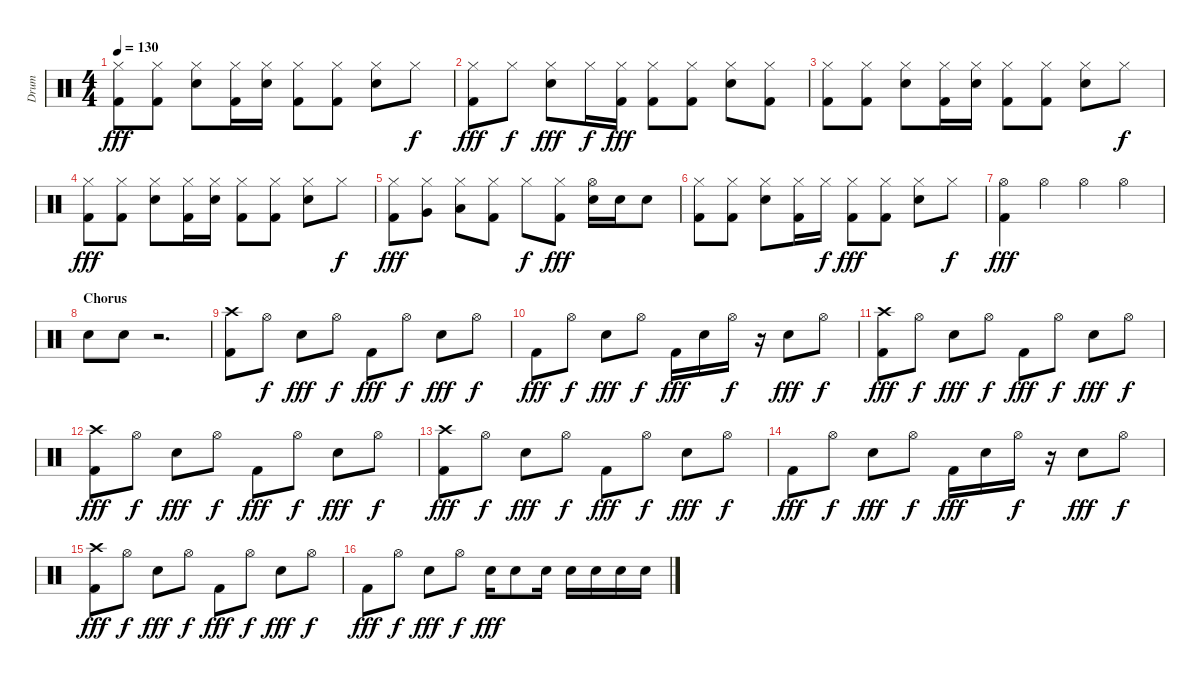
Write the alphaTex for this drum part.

\track ("Drum" "Drum") {instrument percussion}
\staff {score}
\articulation defaults
\ts (4 4)
\tempo 130
\clef neutral
\ks c
("Hi-Hat (closed)" "Kick (hit) 2").8{dy fff} ("Hi-Hat (closed)" "Kick (hit) 2").8 ("Hi-Hat (closed)" "Electric Snare (hit)").8 ("Hi-Hat (closed)" "Kick (hit) 2").16 ("Hi-Hat (closed)" "Electric Snare (hit)").16 ("Hi-Hat (closed)" "Kick (hit) 2").8 ("Hi-Hat (closed)" "Kick (hit) 2").8 ("Hi-Hat (closed)" "Electric Snare (hit)").8 "Hi-Hat (closed)".8{dy f} |
("Hi-Hat (closed)" "Kick (hit) 2").8{dy fff} "Hi-Hat (closed)".8{dy f} ("Hi-Hat (closed)" "Electric Snare (hit)").8{dy fff} "Hi-Hat (closed)".16{dy f} ("Hi-Hat (closed)" "Kick (hit) 2").16{dy fff} ("Hi-Hat (closed)" "Kick (hit) 2").8 ("Hi-Hat (closed)" "Kick (hit) 2").8 ("Hi-Hat (closed)" "Electric Snare (hit)").8 ("Hi-Hat (closed)" "Kick (hit) 2").8 |
("Hi-Hat (closed)" "Kick (hit) 2").8 ("Hi-Hat (closed)" "Kick (hit) 2").8 ("Hi-Hat (closed)" "Electric Snare (hit)").8 ("Hi-Hat (closed)" "Kick (hit) 2").16 ("Hi-Hat (closed)" "Electric Snare (hit)").16 ("Hi-Hat (closed)" "Kick (hit) 2").8 ("Hi-Hat (closed)" "Kick (hit) 2").8 ("Hi-Hat (closed)" "Electric Snare (hit)").8 "Hi-Hat (closed)".8{dy f} |
("Hi-Hat (closed)" "Kick (hit) 2").8{dy fff} ("Hi-Hat (closed)" "Kick (hit) 2").8 ("Hi-Hat (closed)" "Electric Snare (hit)").8 ("Hi-Hat (closed)" "Kick (hit) 2").16 ("Hi-Hat (closed)" "Electric Snare (hit)").16 ("Hi-Hat (closed)" "Kick (hit) 2").8 ("Hi-Hat (closed)" "Kick (hit) 2").8 ("Hi-Hat (closed)" "Electric Snare (hit)").8 "Hi-Hat (closed)".8{dy f} |
("Hi-Hat (closed)" "Kick (hit) 2").8{dy fff} ("Hi-Hat (closed)" "Very Low Tom (hit)").8 ("Hi-Hat (closed)" "Low Tom (hit)").8 ("Hi-Hat (closed)" "Kick (hit) 2").8 "Hi-Hat (closed)".8{dy f} ("Hi-Hat (closed)" "Kick (hit) 2").8{dy fff} ("Hi-Hat (open)" "Electric Snare (hit)").16 "Electric Snare (hit)".16 "Electric Snare (hit)".8 |
("Hi-Hat (closed)" "Kick (hit) 2").8 ("Hi-Hat (closed)" "Kick (hit) 2").8 ("Hi-Hat (closed)" "Electric Snare (hit)").8 ("Hi-Hat (closed)" "Kick (hit) 2").16 "Hi-Hat (closed)".16{dy f} ("Hi-Hat (closed)" "Kick (hit) 2").8{dy fff} ("Hi-Hat (closed)" "Kick (hit) 2").8 ("Hi-Hat (closed)" "Electric Snare (hit)").8 "Hi-Hat (closed)".8{dy f} |
("Hi-Hat (open)" "Kick (hit) 2").4{dy fff} "Hi-Hat (open)".4 "Hi-Hat (open)".4 "Hi-Hat (open)".4 |
\section ("" "Chorus")
"Electric Snare (hit)".8 "Electric Snare (hit)".8 r.2{d} |
("Crash high (hit)" "Kick (hit) 2").8 "Hi-Hat (open)".8{dy f} "Electric Snare (hit)".8{dy fff} "Hi-Hat (open)".8{dy f} "Kick (hit) 2".8{dy fff} "Hi-Hat (open)".8{dy f} "Electric Snare (hit)".8{dy fff} "Hi-Hat (open)".8{dy f} |
"Kick (hit) 2".8{dy fff} "Hi-Hat (open)".8{dy f} "Electric Snare (hit)".8{dy fff} "Hi-Hat (open)".8{dy f} "Kick (hit) 2".16{dy fff} "Electric Snare (hit)".16 "Hi-Hat (open)".16{dy f} r.16 "Electric Snare (hit)".8{dy fff} "Hi-Hat (open)".8{dy f} |
("Crash high (hit)" "Kick (hit) 2").8{dy fff} "Hi-Hat (open)".8{dy f} "Electric Snare (hit)".8{dy fff} "Hi-Hat (open)".8{dy f} "Kick (hit) 2".8{dy fff} "Hi-Hat (open)".8{dy f} "Electric Snare (hit)".8{dy fff} "Hi-Hat (open)".8{dy f} |
("Crash high (hit)" "Kick (hit) 2").8{dy fff} "Hi-Hat (open)".8{dy f} "Electric Snare (hit)".8{dy fff} "Hi-Hat (open)".8{dy f} "Kick (hit) 2".8{dy fff} "Hi-Hat (open)".8{dy f} "Electric Snare (hit)".8{dy fff} "Hi-Hat (open)".8{dy f} |
("Crash high (hit)" "Kick (hit) 2").8{dy fff} "Hi-Hat (open)".8{dy f} "Electric Snare (hit)".8{dy fff} "Hi-Hat (open)".8{dy f} "Kick (hit) 2".8{dy fff} "Hi-Hat (open)".8{dy f} "Electric Snare (hit)".8{dy fff} "Hi-Hat (open)".8{dy f} |
"Kick (hit) 2".8{dy fff} "Hi-Hat (open)".8{dy f} "Electric Snare (hit)".8{dy fff} "Hi-Hat (open)".8{dy f} "Kick (hit) 2".16{dy fff} "Electric Snare (hit)".16 "Hi-Hat (open)".16{dy f} r.16 "Electric Snare (hit)".8{dy fff} "Hi-Hat (open)".8{dy f} |
("Crash high (hit)" "Kick (hit) 2").8{dy fff} "Hi-Hat (open)".8{dy f} "Electric Snare (hit)".8{dy fff} "Hi-Hat (open)".8{dy f} "Kick (hit) 2".8{dy fff} "Hi-Hat (open)".8{dy f} "Electric Snare (hit)".8{dy fff} "Hi-Hat (open)".8{dy f} |
"Kick (hit) 2".8{dy fff} "Hi-Hat (open)".8{dy f} "Electric Snare (hit)".8{dy fff} "Hi-Hat (open)".8{dy f} "Electric Snare (hit)".16{dy fff} "Electric Snare (hit)".8 "Electric Snare (hit)".16 "Electric Snare (hit)".16 "Electric Snare (hit)".16 "Electric Snare (hit)".16 "Electric Snare (hit)".16
